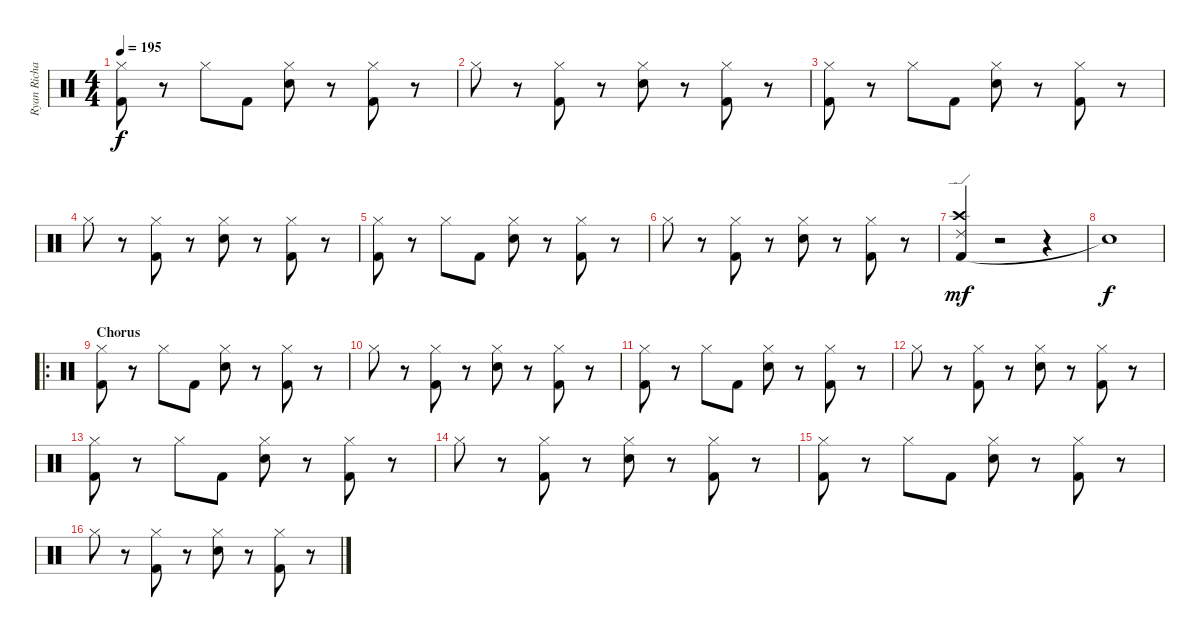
\track ("Ryan Richards" "Ryan Richa") {instrument percussion}
\staff {score}
\articulation defaults
\ts (4 4)
\tempo 195
\clef neutral
\ks c
("Kick (hit) 2" "Hi-Hat (closed)").8{dy f} r.8 "Hi-Hat (closed)".8 "Kick (hit) 2".8 ("Hi-Hat (closed)" "Snare (hit) 2").8 r.8 ("Kick (hit) 2" "Hi-Hat (closed)").8 r.8 |
"Hi-Hat (closed)".8 r.8 ("Kick (hit) 2" "Hi-Hat (closed)").8 r.8 ("Hi-Hat (closed)" "Snare (hit) 2").8 r.8 ("Kick (hit) 2" "Hi-Hat (closed)").8 r.8 |
("Kick (hit) 2" "Hi-Hat (closed)").8 r.8 "Hi-Hat (closed)".8 "Kick (hit) 2".8 ("Hi-Hat (closed)" "Snare (hit) 2").8 r.8 ("Kick (hit) 2" "Hi-Hat (closed)").8 r.8 |
"Hi-Hat (closed)".8 r.8 ("Kick (hit) 2" "Hi-Hat (closed)").8 r.8 ("Hi-Hat (closed)" "Snare (hit) 2").8 r.8 ("Kick (hit) 2" "Hi-Hat (closed)").8 r.8 |
("Kick (hit) 2" "Hi-Hat (closed)").8 r.8 "Hi-Hat (closed)".8 "Kick (hit) 2".8 ("Hi-Hat (closed)" "Snare (hit) 2").8 r.8 ("Kick (hit) 2" "Hi-Hat (closed)").8 r.8 |
"Hi-Hat (closed)".8 r.8 ("Kick (hit) 2" "Hi-Hat (closed)").8 r.8 ("Hi-Hat (closed)" "Snare (hit) 2").8 r.8 ("Kick (hit) 2" "Hi-Hat (closed)").8 r.8 |
("Kick (hit) 2" "Crash high (hit)" "Ride (edge) 2").4{dy mf} r.2 r.4 |
"Snare (hit)"{t}.1{dy f} |
\ro
\section ("" "Chorus")
("Kick (hit) 2" "Hi-Hat (closed)").8 r.8 "Hi-Hat (closed)".8 "Kick (hit) 2".8 ("Hi-Hat (closed)" "Snare (hit) 2").8 r.8 ("Kick (hit) 2" "Hi-Hat (closed)").8 r.8 |
"Hi-Hat (closed)".8 r.8 ("Kick (hit) 2" "Hi-Hat (closed)").8 r.8 ("Hi-Hat (closed)" "Snare (hit) 2").8 r.8 ("Kick (hit) 2" "Hi-Hat (closed)").8 r.8 |
("Kick (hit) 2" "Hi-Hat (closed)").8 r.8 "Hi-Hat (closed)".8 "Kick (hit) 2".8 ("Hi-Hat (closed)" "Snare (hit) 2").8 r.8 ("Kick (hit) 2" "Hi-Hat (closed)").8 r.8 |
"Hi-Hat (closed)".8 r.8 ("Kick (hit) 2" "Hi-Hat (closed)").8 r.8 ("Hi-Hat (closed)" "Snare (hit) 2").8 r.8 ("Kick (hit) 2" "Hi-Hat (closed)").8 r.8 |
("Kick (hit) 2" "Hi-Hat (closed)").8 r.8 "Hi-Hat (closed)".8 "Kick (hit) 2".8 ("Hi-Hat (closed)" "Snare (hit) 2").8 r.8 ("Kick (hit) 2" "Hi-Hat (closed)").8 r.8 |
"Hi-Hat (closed)".8 r.8 ("Kick (hit) 2" "Hi-Hat (closed)").8 r.8 ("Hi-Hat (closed)" "Snare (hit) 2").8 r.8 ("Kick (hit) 2" "Hi-Hat (closed)").8 r.8 |
("Kick (hit) 2" "Hi-Hat (closed)").8 r.8 "Hi-Hat (closed)".8 "Kick (hit) 2".8 ("Hi-Hat (closed)" "Snare (hit) 2").8 r.8 ("Kick (hit) 2" "Hi-Hat (closed)").8 r.8 |
"Hi-Hat (closed)".8 r.8 ("Kick (hit) 2" "Hi-Hat (closed)").8 r.8 ("Hi-Hat (closed)" "Snare (hit) 2").8 r.8 ("Kick (hit) 2" "Hi-Hat (closed)").8 r.8
